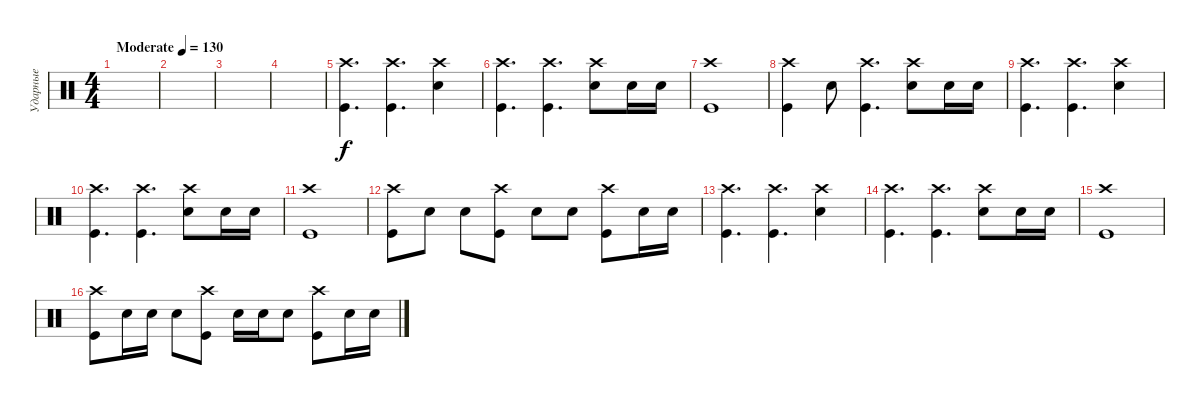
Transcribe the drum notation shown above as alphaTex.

\track ("Ударные" "Ударные") {instrument percussion}
\staff {score}
\articulation defaults
\ts (4 4)
\tempo (130 "Moderate")
\clef neutral
\ks c
|
|
|
|
("Kick (hit)" "Crash high (hit)").4{d} ("Kick (hit)" "Crash high (hit)").4{d} ("Snare (hit) 2" "Crash high (hit)").4 |
("Kick (hit)" "Crash high (hit)").4{d} ("Kick (hit)" "Crash high (hit)").4{d} ("Snare (hit) 2" "Crash high (hit)").8 "Snare (hit) 2".16 "Snare (hit) 2".16 |
("Kick (hit)" "Crash high (hit)").1 |
("Kick (hit)" "Crash high (hit)").4 "Snare (hit) 2".8 ("Kick (hit)" "Crash high (hit)").4{d} ("Snare (hit) 2" "Crash high (hit)").8 "Snare (hit) 2".16 "Snare (hit) 2".16 |
("Kick (hit)" "Crash high (hit)").4{d} ("Kick (hit)" "Crash high (hit)").4{d} ("Snare (hit) 2" "Crash high (hit)").4 |
("Kick (hit)" "Crash high (hit)").4{d} ("Kick (hit)" "Crash high (hit)").4{d} ("Snare (hit) 2" "Crash high (hit)").8 "Snare (hit) 2".16 "Snare (hit) 2".16 |
("Kick (hit)" "Crash high (hit)").1 |
("Kick (hit)" "Crash high (hit)").8 "Snare (hit) 2".8 "Snare (hit) 2".8 ("Kick (hit)" "Crash high (hit)").8 "Snare (hit) 2".8 "Snare (hit) 2".8 ("Kick (hit)" "Crash high (hit)").8 "Snare (hit) 2".16 "Snare (hit) 2".16 |
("Kick (hit)" "Crash high (hit)").4{d} ("Kick (hit)" "Crash high (hit)").4{d} ("Snare (hit) 2" "Crash high (hit)").4 |
("Kick (hit)" "Crash high (hit)").4{d} ("Kick (hit)" "Crash high (hit)").4{d} ("Snare (hit) 2" "Crash high (hit)").8 "Snare (hit) 2".16 "Snare (hit) 2".16 |
("Kick (hit)" "Crash high (hit)").1 |
("Kick (hit)" "Crash high (hit)").8 "Snare (hit) 2".16 "Snare (hit) 2".16 "Snare (hit) 2".8 ("Kick (hit)" "Crash high (hit)").8 "Snare (hit) 2".16 "Snare (hit) 2".16 "Snare (hit) 2".8 ("Crash high (hit)" "Kick (hit)").8 "Snare (hit) 2".16 "Snare (hit) 2".16
